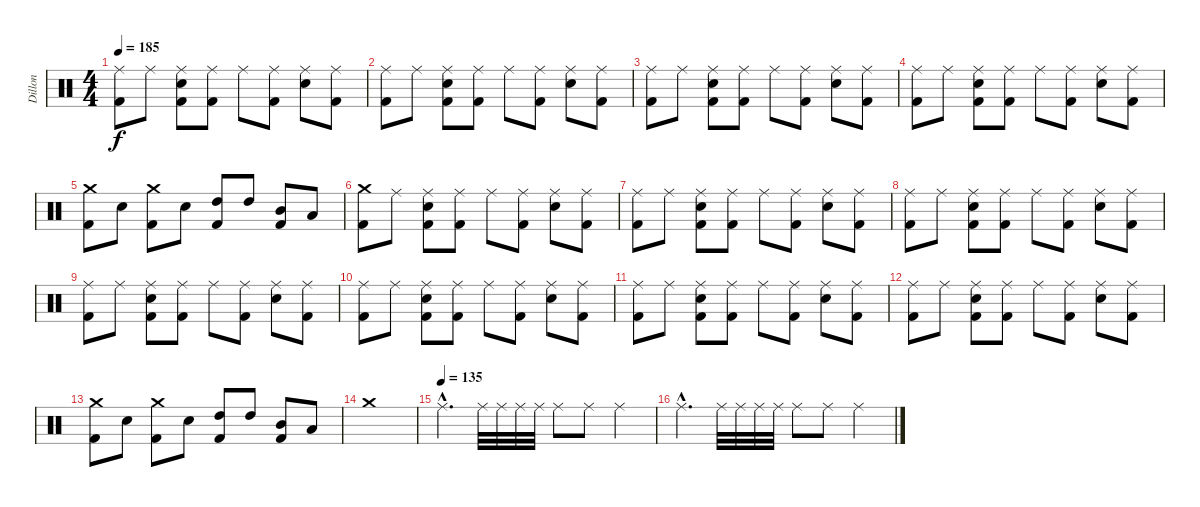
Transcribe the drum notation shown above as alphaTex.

\track ("Dillon" "Dillon") {instrument percussion}
\staff {score}
\articulation defaults
\ts (4 4)
\tempo 185
\clef neutral
\ks c
("Ride (middle)" "Kick (hit) 2").8{dy f} "Ride (middle)".8 ("Ride (middle)" "Electric Snare (hit)" "Kick (hit) 2").8 ("Ride (middle)" "Kick (hit) 2").8 "Ride (middle)".8 ("Ride (middle)" "Kick (hit) 2").8 ("Ride (middle)" "Electric Snare (hit)").8 ("Ride (middle)" "Kick (hit) 2").8 |
("Ride (middle)" "Kick (hit) 2").8 "Ride (middle)".8 ("Ride (middle)" "Electric Snare (hit)" "Kick (hit) 2").8 ("Ride (middle)" "Kick (hit) 2").8 "Ride (middle)".8 ("Ride (middle)" "Kick (hit) 2").8 ("Ride (middle)" "Electric Snare (hit)").8 ("Ride (middle)" "Kick (hit) 2").8 |
("Ride (middle)" "Kick (hit) 2").8 "Ride (middle)".8 ("Ride (middle)" "Electric Snare (hit)" "Kick (hit) 2").8 ("Ride (middle)" "Kick (hit) 2").8 "Ride (middle)".8 ("Ride (middle)" "Kick (hit) 2").8 ("Ride (middle)" "Electric Snare (hit)").8 ("Ride (middle)" "Kick (hit) 2").8 |
("Ride (middle)" "Kick (hit) 2").8 "Ride (middle)".8 ("Ride (middle)" "Electric Snare (hit)" "Kick (hit) 2").8 ("Ride (middle)" "Kick (hit) 2").8 "Ride (middle)".8 ("Ride (middle)" "Kick (hit) 2").8 ("Ride (middle)" "Electric Snare (hit)").8 ("Ride (middle)" "Kick (hit) 2").8 |
("Crash medium (hit)" "Kick (hit) 2").8 "Electric Snare (hit)".8 ("Crash medium (hit)" "Kick (hit) 2").8 "Electric Snare (hit)".8 ("High Tom (hit)" "Kick (hit) 2").8 "High Tom (hit)".8 ("Mid Tom (hit)" "Kick (hit) 2").8 "Low Tom (hit)".8 |
("Crash medium (hit)" "Kick (hit) 2").8 "Ride (middle)".8 ("Ride (middle)" "Electric Snare (hit)" "Kick (hit) 2").8 ("Ride (middle)" "Kick (hit) 2").8 "Ride (middle)".8 ("Ride (middle)" "Kick (hit) 2").8 ("Ride (middle)" "Electric Snare (hit)").8 ("Ride (middle)" "Kick (hit) 2").8 |
("Ride (middle)" "Kick (hit) 2").8 "Ride (middle)".8 ("Ride (middle)" "Electric Snare (hit)" "Kick (hit) 2").8 ("Ride (middle)" "Kick (hit) 2").8 "Ride (middle)".8 ("Ride (middle)" "Kick (hit) 2").8 ("Ride (middle)" "Electric Snare (hit)").8 ("Ride (middle)" "Kick (hit) 2").8 |
("Ride (middle)" "Kick (hit) 2").8 "Ride (middle)".8 ("Ride (middle)" "Electric Snare (hit)" "Kick (hit) 2").8 ("Ride (middle)" "Kick (hit) 2").8 "Ride (middle)".8 ("Ride (middle)" "Kick (hit) 2").8 ("Ride (middle)" "Electric Snare (hit)").8 ("Ride (middle)" "Kick (hit) 2").8 |
("Ride (middle)" "Kick (hit) 2").8 "Ride (middle)".8 ("Ride (middle)" "Electric Snare (hit)" "Kick (hit) 2").8 ("Ride (middle)" "Kick (hit) 2").8 "Ride (middle)".8 ("Ride (middle)" "Kick (hit) 2").8 ("Ride (middle)" "Electric Snare (hit)").8 ("Ride (middle)" "Kick (hit) 2").8 |
("Ride (middle)" "Kick (hit) 2").8 "Ride (middle)".8 ("Ride (middle)" "Electric Snare (hit)" "Kick (hit) 2").8 ("Ride (middle)" "Kick (hit) 2").8 "Ride (middle)".8 ("Ride (middle)" "Kick (hit) 2").8 ("Ride (middle)" "Electric Snare (hit)").8 ("Ride (middle)" "Kick (hit) 2").8 |
("Ride (middle)" "Kick (hit) 2").8 "Ride (middle)".8 ("Ride (middle)" "Electric Snare (hit)" "Kick (hit) 2").8 ("Ride (middle)" "Kick (hit) 2").8 "Ride (middle)".8 ("Ride (middle)" "Kick (hit) 2").8 ("Ride (middle)" "Electric Snare (hit)").8 ("Ride (middle)" "Kick (hit) 2").8 |
("Ride (middle)" "Kick (hit) 2").8 "Ride (middle)".8 ("Ride (middle)" "Electric Snare (hit)" "Kick (hit) 2").8 ("Ride (middle)" "Kick (hit) 2").8 "Ride (middle)".8 ("Ride (middle)" "Kick (hit) 2").8 ("Ride (middle)" "Electric Snare (hit)").8 ("Ride (middle)" "Kick (hit) 2").8 |
("Crash medium (hit)" "Kick (hit) 2").8 "Electric Snare (hit)".8 ("Crash medium (hit)" "Kick (hit) 2").8 "Electric Snare (hit)".8 ("High Tom (hit)" "Kick (hit) 2").8 "High Tom (hit)".8 ("Mid Tom (hit)" "Kick (hit) 2").8 "Low Tom (hit)".8 |
"Crash medium (hit)".1 |
\tempo (135)
"Ride (middle)"{hac}.4{d} "Ride (middle)".32 "Ride (middle)".32 "Ride (middle)".32 "Ride (middle)".32 "Ride (middle)".8 "Ride (middle)".8 "Ride (middle)".4 |
"Ride (middle)"{hac}.4{d} "Ride (middle)".32 "Ride (middle)".32 "Ride (middle)".32 "Ride (middle)".32 "Ride (middle)".8 "Ride (middle)".8 "Ride (middle)".4
